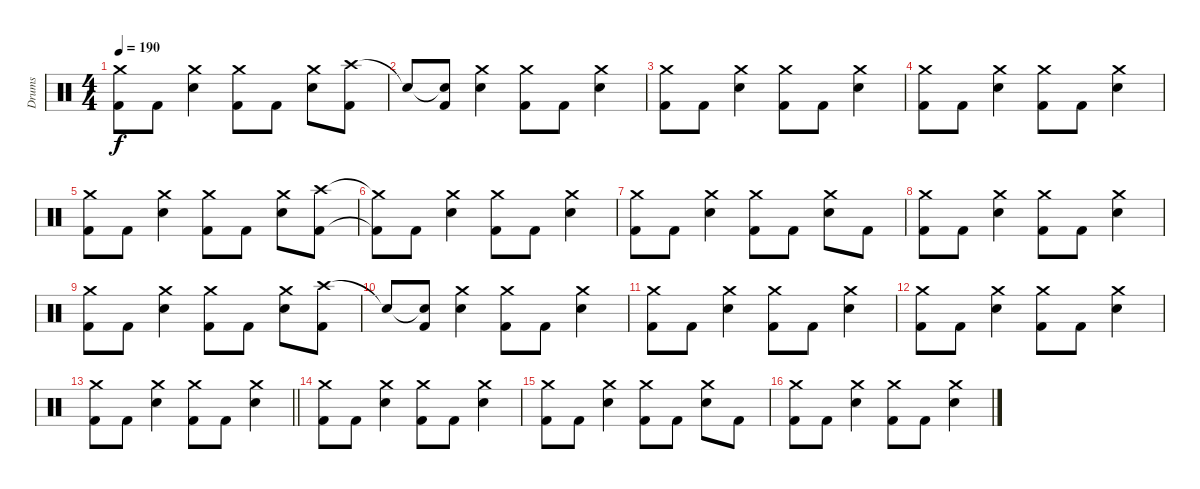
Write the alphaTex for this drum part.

\track ("Drums" "Drums") {instrument percussion}
\staff {score}
\articulation defaults
\ts (4 4)
\tempo 190
\clef neutral
\ks c
("Crash medium (hit)" "Kick (hit) 2").8{dy f} "Kick (hit) 2".8 ("Crash medium (hit)" "Electric Snare (hit)").4 ("Crash medium (hit)" "Kick (hit) 2").8 "Kick (hit) 2".8 ("Crash medium (hit)" "Electric Snare (hit)").8 ("Crash high (hit)" "Kick (hit) 2").8 |
"Snare (hit)"{t}.8 ("Snare (hit)"{t} "Kick (hit) 2").8 ("Crash medium (hit)" "Electric Snare (hit)").4 ("Crash medium (hit)" "Kick (hit) 2").8 "Kick (hit) 2".8 ("Crash medium (hit)" "Electric Snare (hit)").4 |
("Crash medium (hit)" "Kick (hit) 2").8 "Kick (hit) 2".8 ("Crash medium (hit)" "Electric Snare (hit)").4 ("Crash medium (hit)" "Kick (hit) 2").8 "Kick (hit) 2".8 ("Crash medium (hit)" "Electric Snare (hit)").4 |
("Crash medium (hit)" "Kick (hit) 2").8 "Kick (hit) 2".8 ("Crash medium (hit)" "Electric Snare (hit)").4 ("Crash medium (hit)" "Kick (hit) 2").8 "Kick (hit) 2".8 ("Crash medium (hit)" "Electric Snare (hit)").4 |
("Crash medium (hit)" "Kick (hit) 2").8 "Kick (hit) 2".8 ("Crash medium (hit)" "Electric Snare (hit)").4 ("Crash medium (hit)" "Kick (hit) 2").8 "Kick (hit) 2".8 ("Crash medium (hit)" "Electric Snare (hit)").8 ("Crash high (hit)" "Kick (hit) 2").8 |
("Crash medium (hit)"{t} "Kick (hit) 2"{t}).8 "Kick (hit) 2".8 ("Crash medium (hit)" "Electric Snare (hit)").4 ("Crash medium (hit)" "Kick (hit) 2").8 "Kick (hit) 2".8 ("Crash medium (hit)" "Electric Snare (hit)").4 |
("Crash medium (hit)" "Kick (hit) 2").8 "Kick (hit) 2".8 ("Crash medium (hit)" "Electric Snare (hit)").4 ("Crash medium (hit)" "Kick (hit) 2").8 "Kick (hit) 2".8 ("Crash medium (hit)" "Electric Snare (hit)").8 "Kick (hit) 2".8 |
("Crash medium (hit)" "Kick (hit) 2").8 "Kick (hit) 2".8 ("Crash medium (hit)" "Electric Snare (hit)").4 ("Crash medium (hit)" "Kick (hit) 2").8 "Kick (hit) 2".8 ("Crash medium (hit)" "Electric Snare (hit)").4 |
("Crash medium (hit)" "Kick (hit) 2").8 "Kick (hit) 2".8 ("Crash medium (hit)" "Electric Snare (hit)").4 ("Crash medium (hit)" "Kick (hit) 2").8 "Kick (hit) 2".8 ("Crash medium (hit)" "Electric Snare (hit)").8 ("Crash high (hit)" "Kick (hit) 2").8 |
"Snare (hit)"{t}.8 ("Snare (hit)"{t} "Kick (hit) 2").8 ("Crash medium (hit)" "Electric Snare (hit)").4 ("Crash medium (hit)" "Kick (hit) 2").8 "Kick (hit) 2".8 ("Crash medium (hit)" "Electric Snare (hit)").4 |
("Crash medium (hit)" "Kick (hit) 2").8 "Kick (hit) 2".8 ("Crash medium (hit)" "Electric Snare (hit)").4 ("Crash medium (hit)" "Kick (hit) 2").8 "Kick (hit) 2".8 ("Crash medium (hit)" "Electric Snare (hit)").4 |
("Crash medium (hit)" "Kick (hit) 2").8 "Kick (hit) 2".8 ("Crash medium (hit)" "Electric Snare (hit)").4 ("Crash medium (hit)" "Kick (hit) 2").8 "Kick (hit) 2".8 ("Crash medium (hit)" "Electric Snare (hit)").4 |
\barLineRight lightlight
("Crash medium (hit)" "Kick (hit) 2").8 "Kick (hit) 2".8 ("Crash medium (hit)" "Electric Snare (hit)").4 ("Crash medium (hit)" "Kick (hit) 2").8 "Kick (hit) 2".8 ("Crash medium (hit)" "Electric Snare (hit)").4 |
\section ("" "")
("Crash medium (hit)" "Kick (hit) 2").8 "Kick (hit) 2".8 ("Crash medium (hit)" "Electric Snare (hit)").4 ("Crash medium (hit)" "Kick (hit) 2").8 "Kick (hit) 2".8 ("Crash medium (hit)" "Electric Snare (hit)").4 |
("Crash medium (hit)" "Kick (hit) 2").8 "Kick (hit) 2".8 ("Crash medium (hit)" "Electric Snare (hit)").4 ("Crash medium (hit)" "Kick (hit) 2").8 "Kick (hit) 2".8 ("Crash medium (hit)" "Electric Snare (hit)").8 "Kick (hit) 2".8 |
("Crash medium (hit)" "Kick (hit) 2").8 "Kick (hit) 2".8 ("Crash medium (hit)" "Electric Snare (hit)").4 ("Crash medium (hit)" "Kick (hit) 2").8 "Kick (hit) 2".8 ("Crash medium (hit)" "Electric Snare (hit)").4
